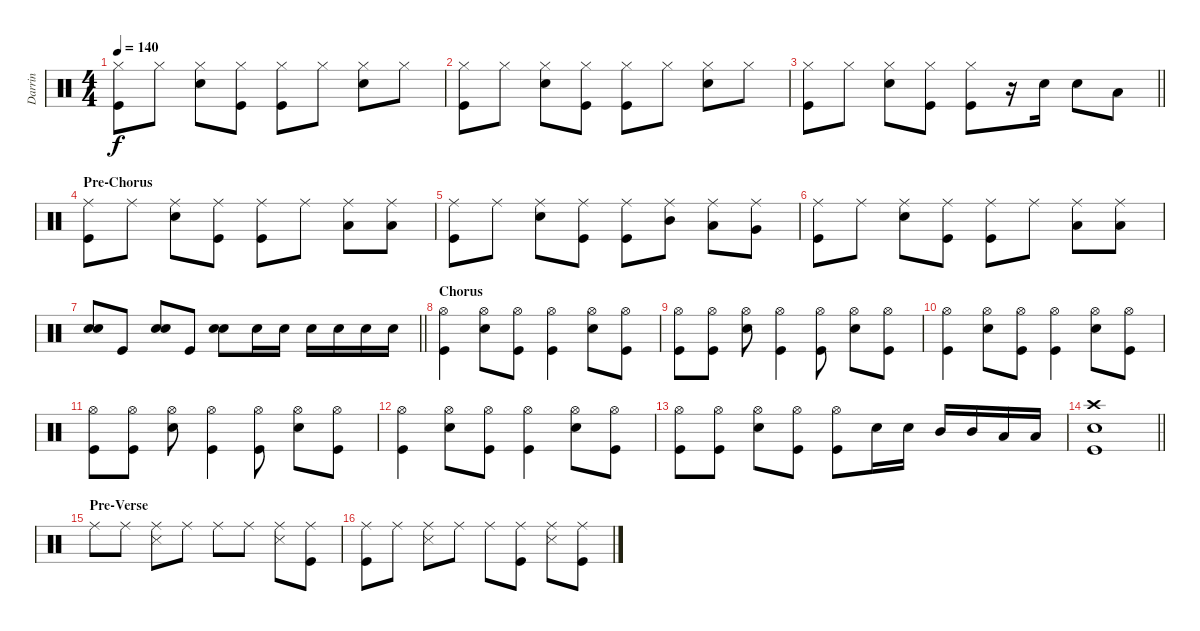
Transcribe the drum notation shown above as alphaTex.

\track ("Darrin" "Darrin") {instrument percussion}
\staff {score}
\articulation defaults
\ts (4 4)
\tempo 140
\clef neutral
\ks c
("Hi-Hat (closed)" "Kick (hit)").8{dy f} "Hi-Hat (closed)".8 ("Hi-Hat (closed)" "Snare (hit) 2").8 ("Hi-Hat (closed)" "Kick (hit)").8 ("Hi-Hat (closed)" "Kick (hit)").8 "Hi-Hat (closed)".8 ("Hi-Hat (closed)" "Snare (hit) 2").8 "Hi-Hat (closed)".8 |
("Hi-Hat (closed)" "Kick (hit)").8 "Hi-Hat (closed)".8 ("Hi-Hat (closed)" "Snare (hit) 2").8 ("Hi-Hat (closed)" "Kick (hit)").8 ("Hi-Hat (closed)" "Kick (hit)").8 "Hi-Hat (closed)".8 ("Hi-Hat (closed)" "Snare (hit) 2").8 "Hi-Hat (closed)".8 |
\barLineRight lightlight
("Hi-Hat (closed)" "Kick (hit)").8 "Hi-Hat (closed)".8 ("Hi-Hat (closed)" "Snare (hit) 2").8 ("Hi-Hat (closed)" "Kick (hit)").8 ("Hi-Hat (closed)" "Kick (hit)").8 r.16 "Snare (hit) 2".16 "Snare (hit) 2".8 "Low Tom (hit)".8 |
\section ("" "Pre-Chorus")
("Ride (middle)" "Kick (hit)").8 "Ride (middle)".8 ("Ride (middle)" "Snare (hit) 2").8 ("Ride (middle)" "Kick (hit)").8 ("Ride (middle)" "Kick (hit)").8 "Ride (middle)".8 ("Ride (middle)" "Low Tom (hit)").8 ("Ride (middle)" "Low Tom (hit)").8 |
("Ride (middle)" "Kick (hit)").8 "Ride (middle)".8 ("Ride (middle)" "Snare (hit) 2").8 ("Ride (middle)" "Kick (hit)").8 ("Ride (middle)" "Kick (hit)").8 ("Ride (middle)" "Mid Tom (hit)").8 ("Ride (middle)" "Low Tom (hit)").8 ("Ride (middle)" "Very Low Tom (hit)").8 |
("Ride (middle)" "Kick (hit)").8 "Ride (middle)".8 ("Ride (middle)" "Snare (hit) 2").8 ("Ride (middle)" "Kick (hit)").8 ("Ride (middle)" "Kick (hit)").8 "Ride (middle)".8 ("Ride (middle)" "Low Tom (hit)").8 ("Ride (middle)" "Low Tom (hit)").8 |
\barLineRight lightlight
("Snare (hit) 2" "Electric Snare (hit)").8 "Kick (hit)".8 ("Snare (hit) 2" "Electric Snare (hit)").8 "Kick (hit)".8 ("Snare (hit) 2" "Electric Snare (hit)").8 "Snare (hit) 2".16 "Snare (hit) 2".16 "Snare (hit) 2".16 "Snare (hit) 2".16 "Snare (hit) 2".16 "Snare (hit) 2".16 |
\section ("" "Chorus")
("Hi-Hat (open)" "Kick (hit)").4 ("Hi-Hat (open)" "Snare (hit) 2").8 ("Hi-Hat (open)" "Kick (hit)").8 ("Hi-Hat (open)" "Kick (hit)").4 ("Hi-Hat (open)" "Snare (hit) 2").8 ("Hi-Hat (open)" "Kick (hit)").8 |
("Hi-Hat (open)" "Kick (hit)").8 ("Hi-Hat (open)" "Kick (hit)").8 ("Hi-Hat (open)" "Snare (hit) 2").8 ("Hi-Hat (open)" "Kick (hit)").4 ("Hi-Hat (open)" "Kick (hit)").8 ("Hi-Hat (open)" "Snare (hit) 2").8 ("Hi-Hat (open)" "Kick (hit)").8 |
("Hi-Hat (open)" "Kick (hit)").4 ("Hi-Hat (open)" "Snare (hit) 2").8 ("Hi-Hat (open)" "Kick (hit)").8 ("Hi-Hat (open)" "Kick (hit)").4 ("Hi-Hat (open)" "Snare (hit) 2").8 ("Hi-Hat (open)" "Kick (hit)").8 |
("Hi-Hat (open)" "Kick (hit)").8 ("Hi-Hat (open)" "Kick (hit)").8 ("Hi-Hat (open)" "Snare (hit) 2").8 ("Hi-Hat (open)" "Kick (hit)").4 ("Hi-Hat (open)" "Kick (hit)").8 ("Hi-Hat (open)" "Snare (hit) 2").8 ("Hi-Hat (open)" "Kick (hit)").8 |
("Hi-Hat (open)" "Kick (hit)").4 ("Hi-Hat (open)" "Snare (hit) 2").8 ("Hi-Hat (open)" "Kick (hit)").8 ("Hi-Hat (open)" "Kick (hit)").4 ("Hi-Hat (open)" "Snare (hit) 2").8 ("Hi-Hat (open)" "Kick (hit)").8 |
("Hi-Hat (open)" "Kick (hit)").8 ("Hi-Hat (open)" "Kick (hit)").8 ("Hi-Hat (open)" "Snare (hit) 2").8 ("Hi-Hat (open)" "Kick (hit)").8 ("Hi-Hat (open)" "Kick (hit)").8 "Snare (hit) 2".16 "Snare (hit) 2".16 "Mid Tom (hit)".16 "Mid Tom (hit)".16 "Low Tom (hit)".16 "Low Tom (hit)".16 |
\barLineRight lightlight
("Crash high (hit)" "Snare (hit) 2" "Kick (hit)").1 |
\section ("" "Pre-Verse")
"Ride (middle)".8 "Ride (middle)".8 ("Ride (middle)" "Metronome (hit)").8 "Ride (middle)".8 "Ride (middle)".8 "Ride (middle)".8 ("Ride (middle)" "Metronome (hit)").8 ("Ride (middle)" "Kick (hit)").8 |
("Ride (middle)" "Kick (hit)").8 "Ride (middle)".8 ("Ride (middle)" "Metronome (hit)").8 "Ride (middle)".8 "Ride (middle)".8 ("Ride (middle)" "Kick (hit)").8 ("Ride (middle)" "Metronome (hit)").8 ("Ride (middle)" "Kick (hit)").8
